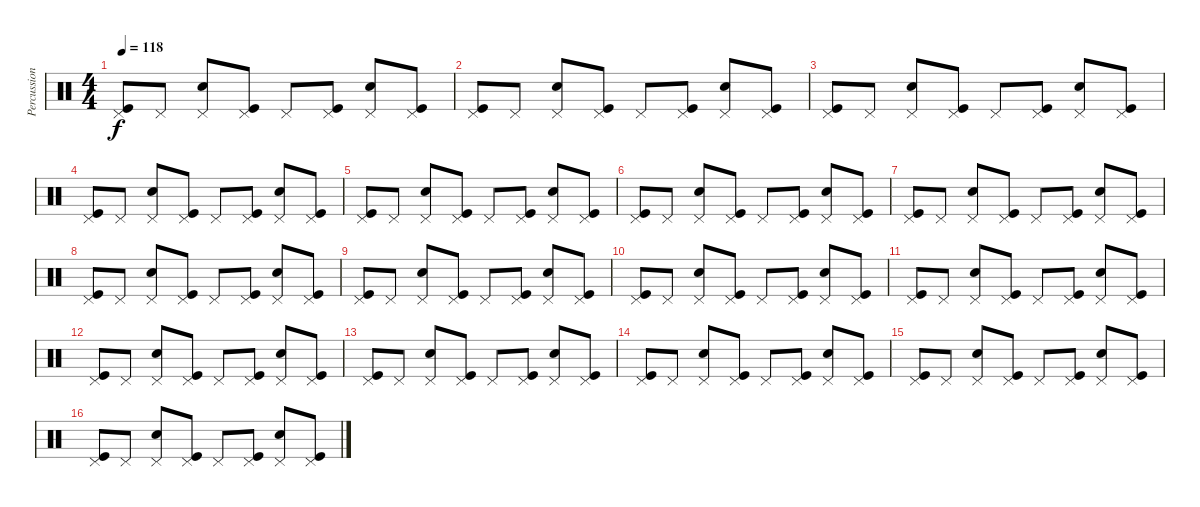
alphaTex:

\track ("Percussions" "Percussion") {instrument percussion}
\staff {score}
\articulation defaults
\ts (4 4)
\tempo 118
\clef neutral
\ks c
("Pedal Hi-Hat (hit)" "Kick (hit)").8{dy f} "Pedal Hi-Hat (hit)".8 ("Pedal Hi-Hat (hit)" "Snare (hit) 2").8 ("Pedal Hi-Hat (hit)" "Kick (hit)").8 "Pedal Hi-Hat (hit)".8 ("Pedal Hi-Hat (hit)" "Kick (hit)").8 ("Pedal Hi-Hat (hit)" "Snare (hit) 2").8 ("Pedal Hi-Hat (hit)" "Kick (hit)").8 |
("Pedal Hi-Hat (hit)" "Kick (hit)").8 "Pedal Hi-Hat (hit)".8 ("Pedal Hi-Hat (hit)" "Snare (hit) 2").8 ("Pedal Hi-Hat (hit)" "Kick (hit)").8 "Pedal Hi-Hat (hit)".8 ("Pedal Hi-Hat (hit)" "Kick (hit)").8 ("Pedal Hi-Hat (hit)" "Snare (hit) 2").8 ("Pedal Hi-Hat (hit)" "Kick (hit)").8 |
("Pedal Hi-Hat (hit)" "Kick (hit)").8 "Pedal Hi-Hat (hit)".8 ("Pedal Hi-Hat (hit)" "Snare (hit) 2").8 ("Pedal Hi-Hat (hit)" "Kick (hit)").8 "Pedal Hi-Hat (hit)".8 ("Pedal Hi-Hat (hit)" "Kick (hit)").8 ("Pedal Hi-Hat (hit)" "Snare (hit) 2").8 ("Pedal Hi-Hat (hit)" "Kick (hit)").8 |
("Pedal Hi-Hat (hit)" "Kick (hit)").8 "Pedal Hi-Hat (hit)".8 ("Pedal Hi-Hat (hit)" "Snare (hit) 2").8 ("Pedal Hi-Hat (hit)" "Kick (hit)").8 "Pedal Hi-Hat (hit)".8 ("Pedal Hi-Hat (hit)" "Kick (hit)").8 ("Pedal Hi-Hat (hit)" "Snare (hit) 2").8 ("Pedal Hi-Hat (hit)" "Kick (hit)").8 |
("Pedal Hi-Hat (hit)" "Kick (hit)").8 "Pedal Hi-Hat (hit)".8 ("Pedal Hi-Hat (hit)" "Snare (hit) 2").8 ("Pedal Hi-Hat (hit)" "Kick (hit)").8 "Pedal Hi-Hat (hit)".8 ("Pedal Hi-Hat (hit)" "Kick (hit)").8 ("Pedal Hi-Hat (hit)" "Snare (hit) 2").8 ("Pedal Hi-Hat (hit)" "Kick (hit)").8 |
("Pedal Hi-Hat (hit)" "Kick (hit)").8 "Pedal Hi-Hat (hit)".8 ("Pedal Hi-Hat (hit)" "Snare (hit) 2").8 ("Pedal Hi-Hat (hit)" "Kick (hit)").8 "Pedal Hi-Hat (hit)".8 ("Pedal Hi-Hat (hit)" "Kick (hit)").8 ("Pedal Hi-Hat (hit)" "Snare (hit) 2").8 ("Pedal Hi-Hat (hit)" "Kick (hit)").8 |
("Pedal Hi-Hat (hit)" "Kick (hit)").8 "Pedal Hi-Hat (hit)".8 ("Pedal Hi-Hat (hit)" "Snare (hit) 2").8 ("Pedal Hi-Hat (hit)" "Kick (hit)").8 "Pedal Hi-Hat (hit)".8 ("Pedal Hi-Hat (hit)" "Kick (hit)").8 ("Pedal Hi-Hat (hit)" "Snare (hit) 2").8 ("Pedal Hi-Hat (hit)" "Kick (hit)").8 |
("Pedal Hi-Hat (hit)" "Kick (hit)").8 "Pedal Hi-Hat (hit)".8 ("Pedal Hi-Hat (hit)" "Snare (hit) 2").8 ("Pedal Hi-Hat (hit)" "Kick (hit)").8 "Pedal Hi-Hat (hit)".8 ("Pedal Hi-Hat (hit)" "Kick (hit)").8 ("Pedal Hi-Hat (hit)" "Snare (hit) 2").8 ("Pedal Hi-Hat (hit)" "Kick (hit)").8 |
("Pedal Hi-Hat (hit)" "Kick (hit)").8 "Pedal Hi-Hat (hit)".8 ("Pedal Hi-Hat (hit)" "Snare (hit) 2").8 ("Pedal Hi-Hat (hit)" "Kick (hit)").8 "Pedal Hi-Hat (hit)".8 ("Pedal Hi-Hat (hit)" "Kick (hit)").8 ("Pedal Hi-Hat (hit)" "Snare (hit) 2").8 ("Pedal Hi-Hat (hit)" "Kick (hit)").8 |
("Pedal Hi-Hat (hit)" "Kick (hit)").8 "Pedal Hi-Hat (hit)".8 ("Pedal Hi-Hat (hit)" "Snare (hit) 2").8 ("Pedal Hi-Hat (hit)" "Kick (hit)").8 "Pedal Hi-Hat (hit)".8 ("Pedal Hi-Hat (hit)" "Kick (hit)").8 ("Pedal Hi-Hat (hit)" "Snare (hit) 2").8 ("Pedal Hi-Hat (hit)" "Kick (hit)").8 |
("Pedal Hi-Hat (hit)" "Kick (hit)").8 "Pedal Hi-Hat (hit)".8 ("Pedal Hi-Hat (hit)" "Snare (hit) 2").8 ("Pedal Hi-Hat (hit)" "Kick (hit)").8 "Pedal Hi-Hat (hit)".8 ("Pedal Hi-Hat (hit)" "Kick (hit)").8 ("Pedal Hi-Hat (hit)" "Snare (hit) 2").8 ("Pedal Hi-Hat (hit)" "Kick (hit)").8 |
("Pedal Hi-Hat (hit)" "Kick (hit)").8 "Pedal Hi-Hat (hit)".8 ("Pedal Hi-Hat (hit)" "Snare (hit) 2").8 ("Pedal Hi-Hat (hit)" "Kick (hit)").8 "Pedal Hi-Hat (hit)".8 ("Pedal Hi-Hat (hit)" "Kick (hit)").8 ("Pedal Hi-Hat (hit)" "Snare (hit) 2").8 ("Pedal Hi-Hat (hit)" "Kick (hit)").8 |
("Pedal Hi-Hat (hit)" "Kick (hit)").8 "Pedal Hi-Hat (hit)".8 ("Pedal Hi-Hat (hit)" "Snare (hit) 2").8 ("Pedal Hi-Hat (hit)" "Kick (hit)").8 "Pedal Hi-Hat (hit)".8 ("Pedal Hi-Hat (hit)" "Kick (hit)").8 ("Pedal Hi-Hat (hit)" "Snare (hit) 2").8 ("Pedal Hi-Hat (hit)" "Kick (hit)").8 |
("Pedal Hi-Hat (hit)" "Kick (hit)").8 "Pedal Hi-Hat (hit)".8 ("Pedal Hi-Hat (hit)" "Snare (hit) 2").8 ("Pedal Hi-Hat (hit)" "Kick (hit)").8 "Pedal Hi-Hat (hit)".8 ("Pedal Hi-Hat (hit)" "Kick (hit)").8 ("Pedal Hi-Hat (hit)" "Snare (hit) 2").8 ("Pedal Hi-Hat (hit)" "Kick (hit)").8 |
("Pedal Hi-Hat (hit)" "Kick (hit)").8 "Pedal Hi-Hat (hit)".8 ("Pedal Hi-Hat (hit)" "Snare (hit) 2").8 ("Pedal Hi-Hat (hit)" "Kick (hit)").8 "Pedal Hi-Hat (hit)".8 ("Pedal Hi-Hat (hit)" "Kick (hit)").8 ("Pedal Hi-Hat (hit)" "Snare (hit) 2").8 ("Pedal Hi-Hat (hit)" "Kick (hit)").8 |
("Pedal Hi-Hat (hit)" "Kick (hit)").8 "Pedal Hi-Hat (hit)".8 ("Pedal Hi-Hat (hit)" "Snare (hit) 2").8 ("Pedal Hi-Hat (hit)" "Kick (hit)").8 "Pedal Hi-Hat (hit)".8 ("Pedal Hi-Hat (hit)" "Kick (hit)").8 ("Pedal Hi-Hat (hit)" "Snare (hit) 2").8 ("Pedal Hi-Hat (hit)" "Kick (hit)").8
